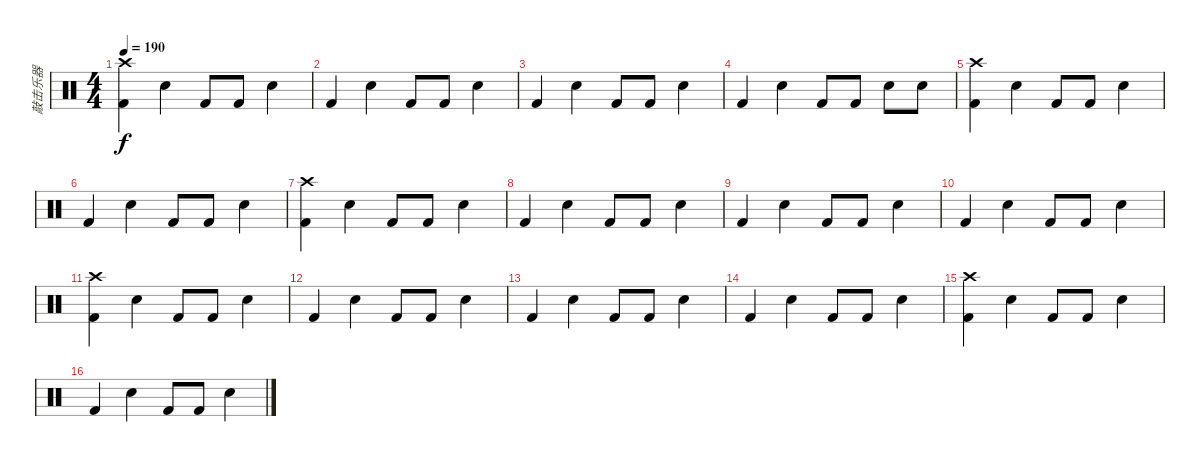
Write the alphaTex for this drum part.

\track ("敲击乐器" "敲击乐器") {instrument percussion}
\staff {score}
\articulation defaults
\ts (4 4)
\tempo 190
\clef neutral
\ks c
("Kick (hit) 2" "Crash high (hit)").4{dy f} "Snare (hit) 2".4 "Kick (hit) 2".8 "Kick (hit) 2".8 "Snare (hit) 2".4 |
"Kick (hit) 2".4 "Snare (hit) 2".4 "Kick (hit) 2".8 "Kick (hit) 2".8 "Snare (hit) 2".4 |
"Kick (hit) 2".4 "Snare (hit) 2".4 "Kick (hit) 2".8 "Kick (hit) 2".8 "Snare (hit) 2".4 |
"Kick (hit) 2".4 "Snare (hit) 2".4 "Kick (hit) 2".8 "Kick (hit) 2".8 "Snare (hit) 2".8 "Snare (hit) 2".8 |
("Kick (hit) 2" "Crash high (hit)").4 "Snare (hit) 2".4 "Kick (hit) 2".8 "Kick (hit) 2".8 "Snare (hit) 2".4 |
"Kick (hit) 2".4 "Snare (hit) 2".4 "Kick (hit) 2".8 "Kick (hit) 2".8 "Snare (hit) 2".4 |
("Kick (hit) 2" "Crash high (hit)").4 "Snare (hit) 2".4 "Kick (hit) 2".8 "Kick (hit) 2".8 "Snare (hit) 2".4 |
"Kick (hit) 2".4 "Snare (hit) 2".4 "Kick (hit) 2".8 "Kick (hit) 2".8 "Snare (hit) 2".4 |
"Kick (hit) 2".4 "Snare (hit) 2".4 "Kick (hit) 2".8 "Kick (hit) 2".8 "Snare (hit) 2".4 |
"Kick (hit) 2".4 "Snare (hit) 2".4 "Kick (hit) 2".8 "Kick (hit) 2".8 "Snare (hit) 2".4 |
("Kick (hit) 2" "Crash high (hit)").4 "Snare (hit) 2".4 "Kick (hit) 2".8 "Kick (hit) 2".8 "Snare (hit) 2".4 |
"Kick (hit) 2".4 "Snare (hit) 2".4 "Kick (hit) 2".8 "Kick (hit) 2".8 "Snare (hit) 2".4 |
"Kick (hit) 2".4 "Snare (hit) 2".4 "Kick (hit) 2".8 "Kick (hit) 2".8 "Snare (hit) 2".4 |
"Kick (hit) 2".4 "Snare (hit) 2".4 "Kick (hit) 2".8 "Kick (hit) 2".8 "Snare (hit) 2".4 |
("Kick (hit) 2" "Crash high (hit)").4 "Snare (hit) 2".4 "Kick (hit) 2".8 "Kick (hit) 2".8 "Snare (hit) 2".4 |
"Kick (hit) 2".4 "Snare (hit) 2".4 "Kick (hit) 2".8 "Kick (hit) 2".8 "Snare (hit) 2".4
